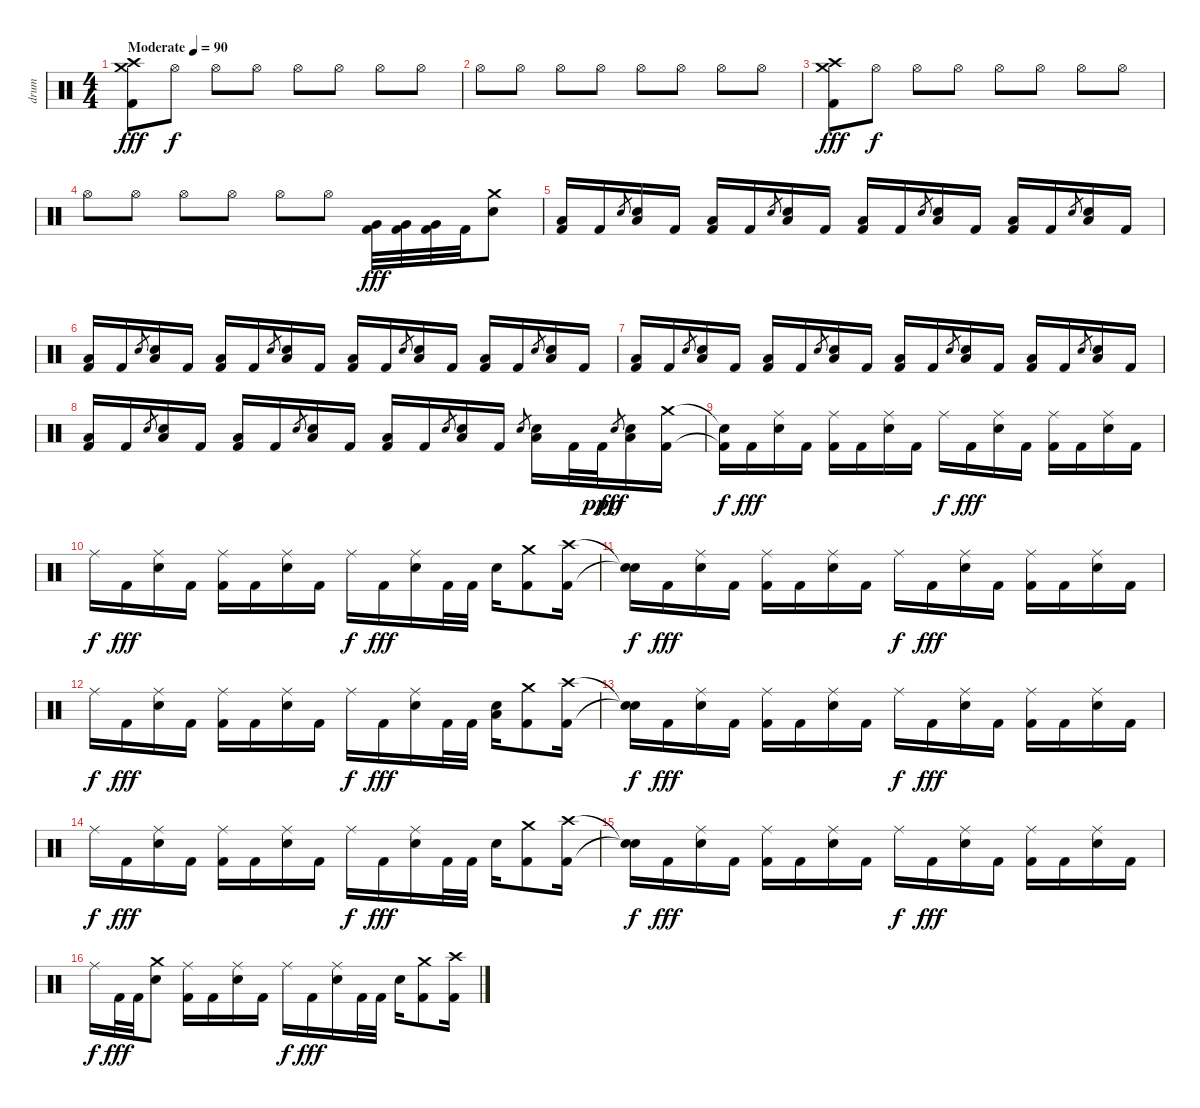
\track ("drum" "drum") {instrument percussion}
\staff {score}
\articulation defaults
\ts (4 4)
\tempo (90 "Moderate")
\clef neutral
\ks c
("Crash medium (hit)" "Crash high (hit)" "Kick (hit) 2").8{dy fff} "Hi-Hat (open)".8{dy f} "Hi-Hat (open)".8 "Hi-Hat (open)".8 "Hi-Hat (open)".8 "Hi-Hat (open)".8 "Hi-Hat (open)".8 "Hi-Hat (open)".8 |
"Hi-Hat (open)".8 "Hi-Hat (open)".8 "Hi-Hat (open)".8 "Hi-Hat (open)".8 "Hi-Hat (open)".8 "Hi-Hat (open)".8 "Hi-Hat (open)".8 "Hi-Hat (open)".8 |
("Crash medium (hit)" "Crash high (hit)" "Kick (hit) 2").8{dy fff} "Hi-Hat (open)".8{dy f} "Hi-Hat (open)".8 "Hi-Hat (open)".8 "Hi-Hat (open)".8 "Hi-Hat (open)".8 "Hi-Hat (open)".8 "Hi-Hat (open)".8 |
"Hi-Hat (open)".8 "Hi-Hat (open)".8 "Hi-Hat (open)".8 "Hi-Hat (open)".8 "Hi-Hat (open)".8 "Hi-Hat (open)".8 ("Very Low Tom (hit)" "Kick (hit) 2").32{dy fff} ("Very Low Tom (hit)" "Kick (hit) 2").32 ("Very Low Tom (hit)" "Kick (hit) 2").32 "Kick (hit) 2".32 ("Crash medium (hit)" "Electric Snare (hit)").8 |
("Low Floor Tom (hit)" "Kick (hit) 2").16 "Kick (hit) 2".16 "Electric Snare (hit)".8{gr} ("Electric Snare (hit)" "Low Floor Tom (hit)").16 "Kick (hit) 2".16 ("Low Floor Tom (hit)" "Kick (hit) 2").16 "Kick (hit) 2".16 "Electric Snare (hit)".8{gr} ("Electric Snare (hit)" "Low Floor Tom (hit)").16 "Kick (hit) 2".16 ("Low Floor Tom (hit)" "Kick (hit) 2").16 "Kick (hit) 2".16 "Electric Snare (hit)".8{gr} ("Electric Snare (hit)" "Low Floor Tom (hit)").16 "Kick (hit) 2".16 ("Low Floor Tom (hit)" "Kick (hit) 2").16 "Kick (hit) 2".16 "Electric Snare (hit)".8{gr} ("Electric Snare (hit)" "Low Floor Tom (hit)").16 "Kick (hit) 2".16 |
("Low Floor Tom (hit)" "Kick (hit) 2").16 "Kick (hit) 2".16 "Electric Snare (hit)".8{gr} ("Electric Snare (hit)" "Low Floor Tom (hit)").16 "Kick (hit) 2".16 ("Low Floor Tom (hit)" "Kick (hit) 2").16 "Kick (hit) 2".16 "Electric Snare (hit)".8{gr} ("Electric Snare (hit)" "Low Floor Tom (hit)").16 "Kick (hit) 2".16 ("Low Floor Tom (hit)" "Kick (hit) 2").16 "Kick (hit) 2".16 "Electric Snare (hit)".8{gr} ("Electric Snare (hit)" "Low Floor Tom (hit)").16 "Kick (hit) 2".16 ("Low Floor Tom (hit)" "Kick (hit) 2").16 "Kick (hit) 2".16 "Electric Snare (hit)".8{gr} ("Electric Snare (hit)" "Low Floor Tom (hit)").16 "Kick (hit) 2".16 |
("Low Floor Tom (hit)" "Kick (hit) 2").16 "Kick (hit) 2".16 "Electric Snare (hit)".8{gr} ("Electric Snare (hit)" "Low Floor Tom (hit)").16 "Kick (hit) 2".16 ("Low Floor Tom (hit)" "Kick (hit) 2").16 "Kick (hit) 2".16 "Electric Snare (hit)".8{gr} ("Electric Snare (hit)" "Low Floor Tom (hit)").16 "Kick (hit) 2".16 ("Low Floor Tom (hit)" "Kick (hit) 2").16 "Kick (hit) 2".16 "Electric Snare (hit)".8{gr} ("Electric Snare (hit)" "Low Floor Tom (hit)").16 "Kick (hit) 2".16 ("Low Floor Tom (hit)" "Kick (hit) 2").16 "Kick (hit) 2".16 "Electric Snare (hit)".8{gr} ("Electric Snare (hit)" "Low Floor Tom (hit)").16 "Kick (hit) 2".16 |
("Low Floor Tom (hit)" "Kick (hit) 2").16 "Kick (hit) 2".16 "Electric Snare (hit)".8{gr} ("Electric Snare (hit)" "Low Floor Tom (hit)").16 "Kick (hit) 2".16 ("Low Floor Tom (hit)" "Kick (hit) 2").16 "Kick (hit) 2".16 "Electric Snare (hit)".8{gr} ("Electric Snare (hit)" "Low Floor Tom (hit)").16 "Kick (hit) 2".16 ("Low Floor Tom (hit)" "Kick (hit) 2").16 "Kick (hit) 2".16 "Electric Snare (hit)".8{gr} ("Electric Snare (hit)" "Low Floor Tom (hit)").16 "Kick (hit) 2".16 "Electric Snare (hit)".8{gr} ("Electric Snare (hit)" "Low Floor Tom (hit)").16 "Kick (hit) 2".32 "Kick (hit) 2".32{dy ppp} "Electric Snare (hit)".8{gr dy fff} ("Electric Snare (hit)" "Low Floor Tom (hit)").16 ("Crash medium (hit)" "Kick (hit) 2").16 |
("Snare (hit)"{t} "Kick (hit) 2"{t}).16{dy f} "Kick (hit) 2".16{dy fff} ("Ride (middle)" "Electric Snare (hit)").16 "Kick (hit) 2".16 ("Ride (middle)" "Kick (hit) 2").16 "Kick (hit) 2".16 ("Ride (middle)" "Electric Snare (hit)").16 "Kick (hit) 2".16 "Ride (middle)".16{dy f} "Kick (hit) 2".16{dy fff} ("Ride (middle)" "Electric Snare (hit)").16 "Kick (hit) 2".16 ("Ride (middle)" "Kick (hit) 2").16 "Kick (hit) 2".16 ("Ride (middle)" "Electric Snare (hit)").16 "Kick (hit) 2".16 |
"Ride (middle)".16{dy f} "Kick (hit) 2".16{dy fff} ("Ride (middle)" "Electric Snare (hit)").16 "Kick (hit) 2".16 ("Ride (middle)" "Kick (hit) 2").16 "Kick (hit) 2".16 ("Ride (middle)" "Electric Snare (hit)").16 "Kick (hit) 2".16 "Ride (middle)".16{dy f} "Kick (hit) 2".16{dy fff} ("Ride (middle)" "Electric Snare (hit)").16 "Kick (hit) 2".32 "Kick (hit) 2".32 "Electric Snare (hit)".16 ("Crash medium (hit)" "Kick (hit) 2").8 ("Crash high (hit)" "Kick (hit) 2").16 |
("Snare (hit)"{t} "Snare (hit)"{t}).16{dy f} "Kick (hit) 2".16{dy fff} ("Ride (middle)" "Electric Snare (hit)").16 "Kick (hit) 2".16 ("Ride (middle)" "Kick (hit) 2").16 "Kick (hit) 2".16 ("Ride (middle)" "Electric Snare (hit)").16 "Kick (hit) 2".16 "Ride (middle)".16{dy f} "Kick (hit) 2".16{dy fff} ("Ride (middle)" "Electric Snare (hit)").16 "Kick (hit) 2".16 ("Ride (middle)" "Kick (hit) 2").16 "Kick (hit) 2".16 ("Ride (middle)" "Electric Snare (hit)").16 "Kick (hit) 2".16 |
"Ride (middle)".16{dy f} "Kick (hit) 2".16{dy fff} ("Ride (middle)" "Electric Snare (hit)").16 "Kick (hit) 2".16 ("Ride (middle)" "Kick (hit) 2").16 "Kick (hit) 2".16 ("Ride (middle)" "Electric Snare (hit)").16 "Kick (hit) 2".16 "Ride (middle)".16{dy f} "Kick (hit) 2".16{dy fff} ("Ride (middle)" "Electric Snare (hit)").16 "Kick (hit) 2".32 "Kick (hit) 2".32 ("Electric Snare (hit)" "Low Floor Tom (hit)").16 ("Crash medium (hit)" "Kick (hit) 2").8 ("Crash high (hit)" "Kick (hit) 2").16 |
("Snare (hit)"{t} "Snare (hit)"{t}).16{dy f} "Kick (hit) 2".16{dy fff} ("Ride (middle)" "Electric Snare (hit)").16 "Kick (hit) 2".16 ("Ride (middle)" "Kick (hit) 2").16 "Kick (hit) 2".16 ("Ride (middle)" "Electric Snare (hit)").16 "Kick (hit) 2".16 "Ride (middle)".16{dy f} "Kick (hit) 2".16{dy fff} ("Ride (middle)" "Electric Snare (hit)").16 "Kick (hit) 2".16 ("Ride (middle)" "Kick (hit) 2").16 "Kick (hit) 2".16 ("Ride (middle)" "Electric Snare (hit)").16 "Kick (hit) 2".16 |
"Ride (middle)".16{dy f} "Kick (hit) 2".16{dy fff} ("Ride (middle)" "Electric Snare (hit)").16 "Kick (hit) 2".16 ("Ride (middle)" "Kick (hit) 2").16 "Kick (hit) 2".16 ("Ride (middle)" "Electric Snare (hit)").16 "Kick (hit) 2".16 "Ride (middle)".16{dy f} "Kick (hit) 2".16{dy fff} ("Ride (middle)" "Electric Snare (hit)").16 "Kick (hit) 2".32 "Kick (hit) 2".32 "Electric Snare (hit)".16 ("Crash medium (hit)" "Kick (hit) 2").8 ("Crash high (hit)" "Kick (hit) 2").16 |
("Snare (hit)"{t} "Snare (hit)"{t}).16{dy f} "Kick (hit) 2".16{dy fff} ("Ride (middle)" "Electric Snare (hit)").16 "Kick (hit) 2".16 ("Ride (middle)" "Kick (hit) 2").16 "Kick (hit) 2".16 ("Ride (middle)" "Electric Snare (hit)").16 "Kick (hit) 2".16 "Ride (middle)".16{dy f} "Kick (hit) 2".16{dy fff} ("Ride (middle)" "Electric Snare (hit)").16 "Kick (hit) 2".16 ("Ride (middle)" "Kick (hit) 2").16 "Kick (hit) 2".16 ("Ride (middle)" "Electric Snare (hit)").16 "Kick (hit) 2".16 |
"Ride (middle)".16{dy f} "Kick (hit) 2".32{dy fff} "Kick (hit) 2".32 ("Crash medium (hit)" "Electric Snare (hit)").8 ("Ride (middle)" "Kick (hit) 2").16 "Kick (hit) 2".16 ("Ride (middle)" "Electric Snare (hit)").16 "Kick (hit) 2".16 "Ride (middle)".16{dy f} "Kick (hit) 2".16{dy fff} ("Ride (middle)" "Electric Snare (hit)").16 "Kick (hit) 2".32 "Kick (hit) 2".32 "Electric Snare (hit)".16 ("Crash medium (hit)" "Kick (hit) 2").8 ("Crash high (hit)" "Kick (hit) 2").16
